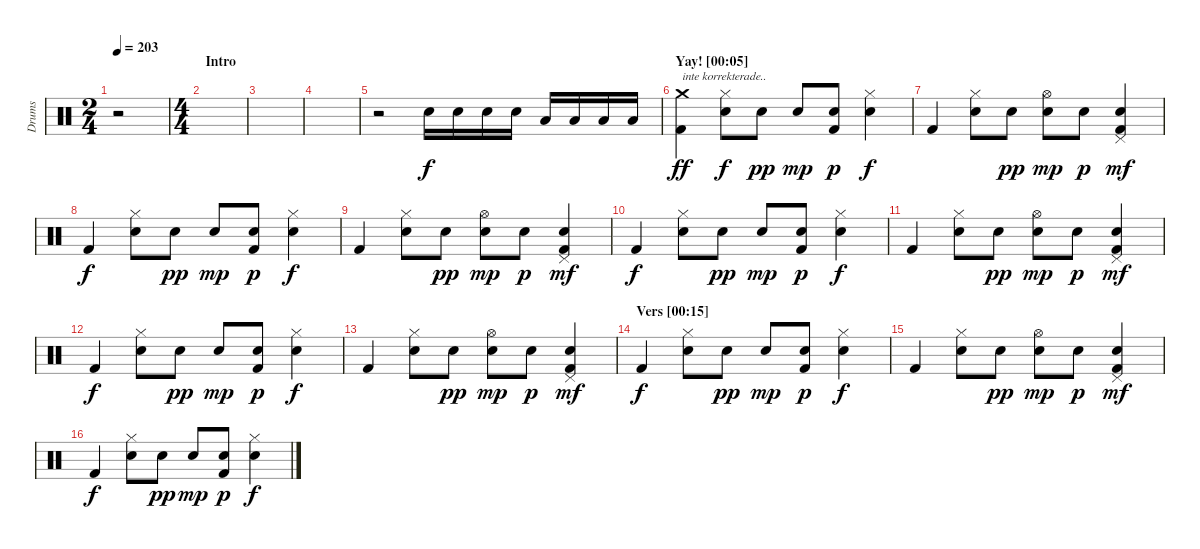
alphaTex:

\track ("Drums" "Drums") {instrument percussion}
\staff {score}
\articulation defaults
\ts (2 4)
\tempo 203
\clef neutral
\ks c
r.2{dy f} |
\ts (4 4)
\section ("" "Intro")
|
|
|
r.2 "Electric Snare (hit)".16 "Electric Snare (hit)".16 "Electric Snare (hit)".16 "Electric Snare (hit)".16 "Low Tom (hit)".16 "Low Tom (hit)".16 "Low Tom (hit)".16 "Low Tom (hit)".16 |
\section ("" "Yay! [00:05]")
("Crash medium (hit)" "Kick (hit) 2").4{txt "inte korrekterade.." dy ff} ("Hi-Hat (closed)" "Electric Snare (hit)").8{dy f} "Snare (hit) 2".8{dy pp} "Snare (hit) 2".8{dy mp} ("Snare (hit) 2" "Kick (hit) 2").8{dy p} ("Hi-Hat (closed)" "Electric Snare (hit)").4{dy f} |
"Kick (hit) 2".4 ("Hi-Hat (closed)" "Electric Snare (hit)").8 "Snare (hit) 2".8{dy pp} ("Hi-Hat (open)" "Snare (hit) 2").8{dy mp} "Snare (hit) 2".8{dy p} ("Pedal Hi-Hat (hit)" "Electric Snare (hit)" "Kick (hit) 2").4{dy mf} |
"Kick (hit) 2".4{dy f} ("Hi-Hat (closed)" "Electric Snare (hit)").8 "Snare (hit) 2".8{dy pp} "Snare (hit) 2".8{dy mp} ("Snare (hit) 2" "Kick (hit) 2").8{dy p} ("Hi-Hat (closed)" "Electric Snare (hit)").4{dy f} |
"Kick (hit) 2".4 ("Hi-Hat (closed)" "Electric Snare (hit)").8 "Snare (hit) 2".8{dy pp} ("Hi-Hat (open)" "Snare (hit) 2").8{dy mp} "Snare (hit) 2".8{dy p} ("Pedal Hi-Hat (hit)" "Electric Snare (hit)" "Kick (hit) 2").4{dy mf} |
"Kick (hit) 2".4{dy f} ("Hi-Hat (closed)" "Electric Snare (hit)").8 "Snare (hit) 2".8{dy pp} "Snare (hit) 2".8{dy mp} ("Snare (hit) 2" "Kick (hit) 2").8{dy p} ("Hi-Hat (closed)" "Electric Snare (hit)").4{dy f} |
"Kick (hit) 2".4 ("Hi-Hat (closed)" "Electric Snare (hit)").8 "Snare (hit) 2".8{dy pp} ("Hi-Hat (open)" "Snare (hit) 2").8{dy mp} "Snare (hit) 2".8{dy p} ("Pedal Hi-Hat (hit)" "Electric Snare (hit)" "Kick (hit) 2").4{dy mf} |
"Kick (hit) 2".4{dy f} ("Hi-Hat (closed)" "Electric Snare (hit)").8 "Snare (hit) 2".8{dy pp} "Snare (hit) 2".8{dy mp} ("Snare (hit) 2" "Kick (hit) 2").8{dy p} ("Hi-Hat (closed)" "Electric Snare (hit)").4{dy f} |
"Kick (hit) 2".4 ("Hi-Hat (closed)" "Electric Snare (hit)").8 "Snare (hit) 2".8{dy pp} ("Hi-Hat (open)" "Snare (hit) 2").8{dy mp} "Snare (hit) 2".8{dy p} ("Pedal Hi-Hat (hit)" "Electric Snare (hit)" "Kick (hit) 2").4{dy mf} |
\section ("" "Vers [00:15]")
"Kick (hit) 2".4{dy f} ("Hi-Hat (closed)" "Electric Snare (hit)").8 "Snare (hit) 2".8{dy pp} "Snare (hit) 2".8{dy mp} ("Snare (hit) 2" "Kick (hit) 2").8{dy p} ("Hi-Hat (closed)" "Electric Snare (hit)").4{dy f} |
"Kick (hit) 2".4 ("Hi-Hat (closed)" "Electric Snare (hit)").8 "Snare (hit) 2".8{dy pp} ("Hi-Hat (open)" "Snare (hit) 2").8{dy mp} "Snare (hit) 2".8{dy p} ("Pedal Hi-Hat (hit)" "Electric Snare (hit)" "Kick (hit) 2").4{dy mf} |
"Kick (hit) 2".4{dy f} ("Hi-Hat (closed)" "Electric Snare (hit)").8 "Snare (hit) 2".8{dy pp} "Snare (hit) 2".8{dy mp} ("Snare (hit) 2" "Kick (hit) 2").8{dy p} ("Hi-Hat (closed)" "Electric Snare (hit)").4{dy f}
